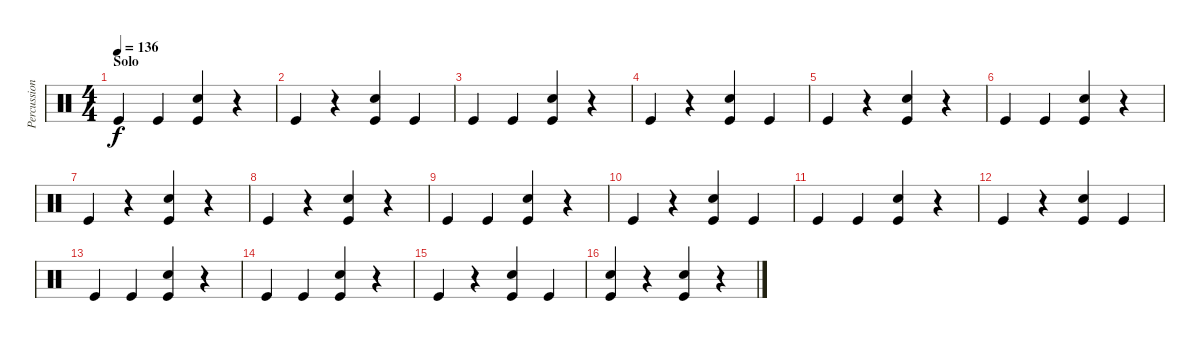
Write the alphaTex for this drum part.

\track ("Percussion" "Percussion") {instrument percussion}
\staff {score}
\articulation defaults
\ts (4 4)
\section ("" "Solo")
\tempo 136
\clef neutral
\ks c "Kick (hit)".4{dy f} "Kick (hit)".4
("Kick (hit)" "Electric Snare (hit)").4 r.4 |
"Kick (hit)".4 r.4 ("Kick (hit)" "Electric Snare (hit)").4 "Kick (hit)".4 |
"Kick (hit)".4 "Kick (hit)".4 ("Kick (hit)" "Electric Snare (hit)").4 r.4 |
"Kick (hit)".4 r.4 ("Kick (hit)" "Electric Snare (hit)").4 "Kick (hit)".4 |
"Kick (hit)".4 r.4 ("Kick (hit)" "Electric Snare (hit)").4 r.4 |
"Kick (hit)".4 "Kick (hit)".4 ("Kick (hit)" "Electric Snare (hit)").4 r.4 |
"Kick (hit)".4 r.4 ("Kick (hit)" "Electric Snare (hit)").4 r.4 |
"Kick (hit)".4 r.4 ("Kick (hit)" "Electric Snare (hit)").4 r.4 |
"Kick (hit)".4 "Kick (hit)".4 ("Kick (hit)" "Electric Snare (hit)").4 r.4 |
"Kick (hit)".4 r.4 ("Kick (hit)" "Electric Snare (hit)").4 "Kick (hit)".4 |
"Kick (hit)".4 "Kick (hit)".4 ("Kick (hit)" "Electric Snare (hit)").4 r.4 |
"Kick (hit)".4 r.4 ("Kick (hit)" "Electric Snare (hit)").4 "Kick (hit)".4 |
"Kick (hit)".4 "Kick (hit)".4 ("Kick (hit)" "Electric Snare (hit)").4 r.4 |
"Kick (hit)".4 "Kick (hit)".4 ("Kick (hit)" "Electric Snare (hit)").4 r.4 |
"Kick (hit)".4 r.4 ("Kick (hit)" "Electric Snare (hit)").4 "Kick (hit)".4 |
("Kick (hit)" "Electric Snare (hit)").4 r.4 ("Kick (hit)" "Electric Snare (hit)").4 r.4
